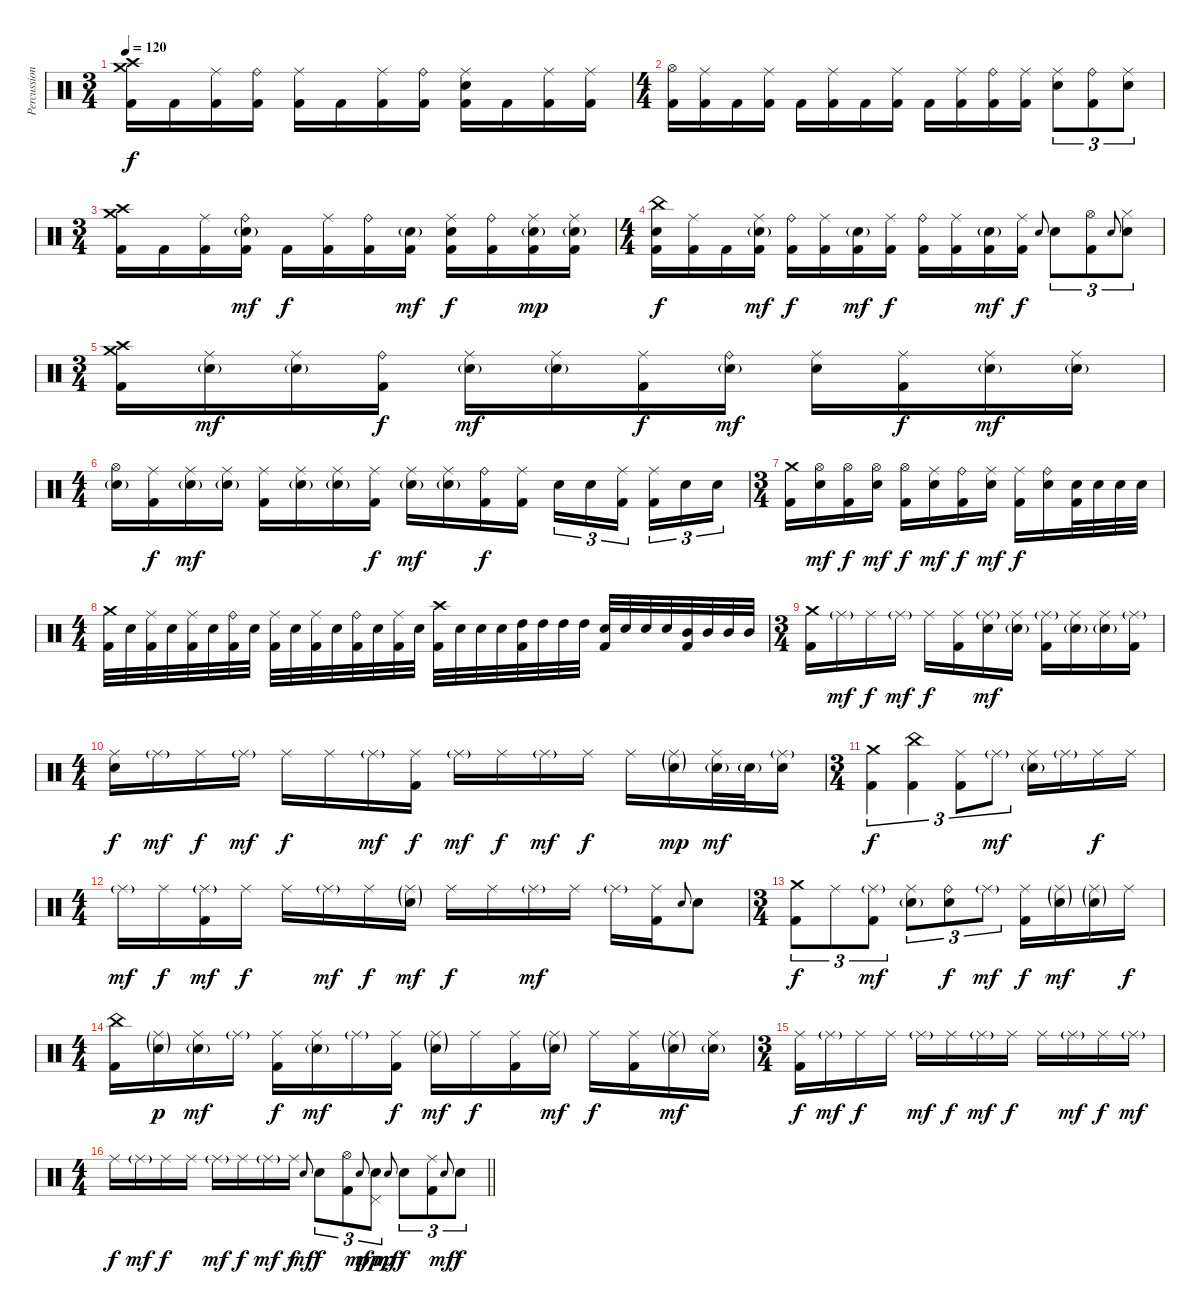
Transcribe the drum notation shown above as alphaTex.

\track ("Percussion" "Percussion") {instrument percussion}
\staff {score}
\articulation defaults
\ts (3 4)
\tempo 120
\clef neutral
\ks c
("Crash medium (hit)" "Crash high (hit)" "Kick (hit) 2").16{dy f} "Kick (hit) 2".16 ("Ride (middle)" "Kick (hit) 2").16 ("Ride (bell)" "Kick (hit) 2").16 ("Ride (middle)" "Kick (hit) 2").16 "Kick (hit) 2".16 ("Ride (middle)" "Kick (hit) 2").16 ("Ride (bell)" "Kick (hit) 2").16 ("Ride (middle)" "Electric Snare (hit)" "Kick (hit) 2").16 "Kick (hit) 2".16 ("Ride (middle)" "Kick (hit) 2").16 ("Ride (middle)" "Kick (hit) 2").16 |
\ts (4 4)
("Hi-Hat (open)" "Kick (hit) 2").16 ("Ride (middle)" "Kick (hit) 2").16 "Kick (hit) 2".16 ("Ride (middle)" "Kick (hit) 2").16 "Kick (hit) 2".16 ("Ride (middle)" "Kick (hit) 2").16 "Kick (hit) 2".16 ("Ride (middle)" "Kick (hit) 2").16 "Kick (hit) 2".16 ("Ride (middle)" "Kick (hit) 2").16 ("Ride (bell)" "Kick (hit) 2").16 ("Ride (middle)" "Kick (hit) 2").16 ("Ride (middle)" "Electric Snare (hit)").8{tu (3 2)} ("Ride (bell)" "Kick (hit) 2").8{tu (3 2)} ("Ride (middle)" "Electric Snare (hit)").8{tu (3 2)} |
\ts (3 4)
("Crash medium (hit)" "Crash high (hit)" "Kick (hit) 2").16 "Kick (hit) 2".16 ("Ride (middle)" "Kick (hit) 2").16 ("Ride (bell)" "Electric Snare (hit)"{g} "Kick (hit) 2").16{dy mf} "Kick (hit) 2".16{dy f} ("Ride (middle)" "Kick (hit) 2").16 ("Ride (bell)" "Kick (hit) 2").16 ("Electric Snare (hit)"{g} "Kick (hit) 2").16{dy mf} ("Ride (middle)" "Electric Snare (hit)" "Kick (hit) 2").16{dy f} ("Ride (bell)" "Kick (hit) 2").16 ("Ride (middle)" "Electric Snare (hit)"{g} "Kick (hit) 2").16{dy mp} ("Ride (middle)" "Electric Snare (hit)"{g} "Kick (hit) 2").16 |
\ts (4 4)
("China (hit)" "Electric Snare (hit)" "Kick (hit) 2").16{dy f} ("Ride (middle)" "Kick (hit) 2").16 "Kick (hit) 2".16 ("Ride (middle)" "Electric Snare (hit)"{g} "Kick (hit) 2").16{dy mf} ("Ride (bell)" "Kick (hit) 2").16{dy f} ("Ride (middle)" "Kick (hit) 2").16 ("Electric Snare (hit)"{g} "Kick (hit) 2").16{dy mf} ("Ride (middle)" "Kick (hit) 2").16{dy f} ("Ride (bell)" "Kick (hit) 2").16 ("Ride (middle)" "Kick (hit) 2").16 ("Electric Snare (hit)"{g} "Kick (hit) 2").16{dy mf} ("Ride (middle)" "Kick (hit) 2").16{dy f} "Electric Snare (hit)".8{gr onbeat} "Electric Snare (hit)".8{tu (3 2)} ("Hi-Hat (open)" "Kick (hit) 2").8{tu (3 2)} "Electric Snare (hit)".8{gr onbeat} ("Hi-Hat (closed)" "Electric Snare (hit)").8{tu (3 2)} |
\ts (3 4)
("Crash medium (hit)" "Crash high (hit)" "Kick (hit) 2").16 ("Ride (middle)" "Electric Snare (hit)"{g}).16{dy mf} ("Ride (middle)" "Electric Snare (hit)"{g}).16 ("Ride (bell)" "Kick (hit) 2").16{dy f} ("Ride (middle)" "Electric Snare (hit)"{g}).16{dy mf} ("Ride (middle)" "Electric Snare (hit)"{g}).16 ("Ride (middle)" "Kick (hit) 2").16{dy f} ("Ride (bell)" "Electric Snare (hit)"{g}).16{dy mf} ("Ride (middle)" "Electric Snare (hit)").16 ("Ride (middle)" "Kick (hit) 2").16{dy f} ("Ride (middle)" "Electric Snare (hit)"{g}).16{dy mf} ("Ride (middle)" "Electric Snare (hit)"{g}).16 |
\ts (4 4)
("Hi-Hat (open)" "Electric Snare (hit)"{g}).16 ("Ride (middle)" "Kick (hit) 2").16{dy f} ("Ride (middle)" "Electric Snare (hit)"{g}).16{dy mf} ("Ride (middle)" "Electric Snare (hit)"{g}).16 ("Ride (middle)" "Kick (hit) 2").16 ("Ride (middle)" "Electric Snare (hit)"{g}).16 ("Ride (middle)" "Electric Snare (hit)"{g}).16 ("Ride (middle)" "Kick (hit) 2").16{dy f} ("Ride (middle)" "Electric Snare (hit)"{g}).16{dy mf} ("Ride (middle)" "Electric Snare (hit)"{g}).16 ("Ride (bell)" "Kick (hit) 2").16{dy f} ("Ride (middle)" "Kick (hit) 2").16 "Electric Snare (hit)".16{tu (3 2)} "Electric Snare (hit)".16{tu (3 2)} ("Ride (middle)" "Kick (hit) 2").16{tu (3 2) beam splitsecondary} ("Ride (middle)" "Kick (hit) 2").16{tu (3 2)} "Electric Snare (hit)".16{tu (3 2)} "Electric Snare (hit)".16{tu (3 2)} |
\ts (3 4)
("Crash medium (hit)" "Kick (hit) 2").16 ("Hi-Hat (open)" "Electric Snare (hit)").16{dy mf} ("Hi-Hat (open)" "Kick (hit) 2").16{dy f} ("Hi-Hat (open)" "Electric Snare (hit)").16{dy mf} ("Hi-Hat (open)" "Kick (hit) 2").16{dy f} ("Ride (middle)" "Electric Snare (hit)").16{dy mf} ("Ride (bell)" "Kick (hit) 2").16{dy f} ("Ride (middle)" "Electric Snare (hit)").16{dy mf} ("Ride (middle)" "Kick (hit) 2").16{dy f} ("Ride (bell)" "Electric Snare (hit)").16 ("Electric Snare (hit)" "Kick (hit) 2").32 "Electric Snare (hit)".32 "Electric Snare (hit)".32 "Electric Snare (hit)".32 |
\ts (4 4)
("Crash medium (hit)" "Kick (hit) 2").32 "Electric Snare (hit)".32 ("Ride (middle)" "Kick (hit) 2").32 "Electric Snare (hit)".32 ("Ride (middle)" "Kick (hit) 2").32 "Electric Snare (hit)".32 ("Ride (bell)" "Kick (hit) 2").32 "Electric Snare (hit)".32 ("Ride (middle)" "Kick (hit) 2").32 "Electric Snare (hit)".32 ("Ride (middle)" "Kick (hit) 2").32 "Electric Snare (hit)".32 ("Ride (bell)" "Kick (hit) 2").32 "Electric Snare (hit)".32 ("Ride (middle)" "Kick (hit) 2").32 "Electric Snare (hit)".32 ("Crash high (hit)" "Kick (hit) 2").32 "Electric Snare (hit)".32 "Electric Snare (hit)".32 "Electric Snare (hit)".32 ("High Tom (hit)" "Kick (hit) 2").32 "High Tom (hit)".32 "High Tom (hit)".32 "High Tom (hit)".32 ("Electric Snare (hit)" "Kick (hit) 2").32 "Electric Snare (hit)".32 "Electric Snare (hit)".32 "Electric Snare (hit)".32 ("Mid Tom (hit)" "Kick (hit) 2").32 "Mid Tom (hit)".32 "Mid Tom (hit)".32 "Mid Tom (hit)".32 |
\ts (3 4)
("Crash medium (hit)" "Kick (hit) 2").16 "Ride (middle)"{g}.16{dy mf} "Ride (middle)".16{dy f} "Ride (middle)"{g}.16{dy mf} "Ride (middle)".16{dy f} ("Ride (middle)" "Kick (hit) 2").16 ("Ride (middle)"{g} "Electric Snare (hit)").16{dy mf} ("Ride (middle)" "Electric Snare (hit)"{g}).16 ("Ride (middle)"{g} "Kick (hit) 2").16 ("Ride (middle)" "Electric Snare (hit)"{g}).16 ("Ride (middle)" "Electric Snare (hit)"{g}).16 ("Ride (middle)"{g} "Kick (hit) 2").16 |
\ts (4 4)
("Ride (middle)" "Electric Snare (hit)").16{dy f} "Ride (middle)"{g}.16{dy mf} "Ride (middle)".16{dy f} "Ride (middle)"{g}.16{dy mf} "Ride (middle)".16{dy f} "Ride (middle)".16 "Ride (middle)"{g}.16{dy mf} ("Ride (middle)" "Kick (hit) 2").16{dy f} "Ride (middle)"{g}.16{dy mf} "Ride (middle)".16{dy f} "Ride (middle)"{g}.16{dy mf} "Ride (middle)".16{dy f} "Ride (middle)".16 ("Ride (middle)"{g} "Electric Snare (hit)"{g}).16{dy mp} ("Ride (middle)" "Electric Snare (hit)"{g}).32{dy mf} "Electric Snare (hit)"{g}.32 ("Ride (middle)"{g} "Electric Snare (hit)").16 |
\ts (3 4)
("Crash medium (hit)" "Kick (hit) 2").4{tu (3 2) dy f} ("China (hit)" "Kick (hit) 2").4{tu (3 2)} ("Ride (middle)" "Kick (hit) 2").8{tu (3 2)} "Ride (middle)"{g}.8{tu (3 2) dy mf} ("Ride (middle)" "Electric Snare (hit)"{g}).16 "Ride (middle)"{g}.16 "Ride (middle)".16{dy f} "Ride (middle)".16 |
\ts (4 4)
"Ride (middle)"{g}.16{dy mf} "Ride (middle)".16{dy f} ("Ride (middle)"{g} "Kick (hit) 2").16{dy mf} "Ride (middle)".16{dy f} "Ride (middle)".16 "Ride (middle)"{g}.16{dy mf} "Ride (middle)".16{dy f} ("Ride (middle)"{g} "Electric Snare (hit)"{g}).16{dy mf} "Ride (middle)".16{dy f} "Ride (middle)".16 "Ride (middle)"{g}.16{dy mf} "Ride (middle)".16 "Ride (middle)"{g}.16 ("Ride (middle)" "Kick (hit) 2").16 "Electric Snare (hit)".8{gr onbeat} "Electric Snare (hit)".8 |
\ts (3 4)
("Crash medium (hit)" "Kick (hit) 2").8{tu (3 2) dy f} "Ride (middle)".8{tu (3 2)} ("Ride (middle)"{g} "Kick (hit) 2").8{tu (3 2) dy mf} ("Ride (middle)" "Electric Snare (hit)"{g}).8{tu (3 2)} ("Ride (bell)" "Electric Snare (hit)").8{tu (3 2) dy f} "Ride (middle)"{g}.8{tu (3 2) dy mf} ("Ride (middle)" "Kick (hit) 2").16{dy f} ("Ride (middle)"{g} "Electric Snare (hit)"{g}).16{dy mf} ("Ride (middle)"{g} "Electric Snare (hit)"{g}).16 "Ride (middle)".16{dy f} |
\ts (4 4)
("China (hit)" "Kick (hit) 2").16 ("Ride (middle)"{g} "Electric Snare (hit)"{g}).16{dy p} ("Ride (middle)" "Electric Snare (hit)"{g}).16{dy mf} "Ride (middle)"{g}.16 ("Ride (middle)" "Kick (hit) 2").16{dy f} ("Ride (middle)" "Electric Snare (hit)"{g}).16{dy mf} "Ride (middle)"{g}.16 ("Ride (middle)" "Kick (hit) 2").16{dy f} ("Ride (middle)"{g} "Electric Snare (hit)"{g}).16{dy mf} "Ride (middle)".16{dy f} ("Ride (middle)" "Kick (hit) 2").16 ("Ride (middle)"{g} "Electric Snare (hit)"{g}).16{dy mf} "Ride (middle)".16{dy f} ("Ride (middle)" "Kick (hit) 2").16 ("Ride (middle)"{g} "Electric Snare (hit)"{g}).16{dy mf} ("Ride (middle)" "Electric Snare (hit)"{g}).16 |
\ts (3 4)
("Ride (middle)" "Kick (hit) 2").16{dy f} "Ride (middle)"{g}.16{dy mf} "Ride (middle)".16{dy f} "Ride (middle)".16 "Ride (middle)"{g}.16{dy mf} "Ride (middle)".16{dy f} "Ride (middle)"{g}.16{dy mf} "Ride (middle)".16{dy f} "Ride (middle)".16 "Ride (middle)"{g}.16{dy mf} "Ride (middle)".16{dy f} "Ride (middle)"{g}.16{dy mf} |
\ts (4 4)
\barLineRight lightlight "Ride (middle)".16{dy f} "Ride (middle)"{g}.16{dy mf} "Ride (middle)".16{dy f} "Ride (middle)".16 "Ride (middle)"{g}.16{dy mf} "Ride (middle)".16{dy f} "Ride (middle)"{g}.16{dy mf} "Ride (middle)".16{dy f} "Electric Snare (hit)".8{gr onbeat dy mf} "Electric Snare (hit)".8{tu (3 2) dy f}
("Hi-Hat (open)" "Kick (hit) 2").8{tu (3 2)} "Electric Snare (hit)".8{gr onbeat dy mf} ("Pedal Hi-Hat (hit)" "Electric Snare (hit)").8{tu (3 2) dy ppp} "Electric Snare (hit)".8{gr onbeat dy mf} "Electric Snare (hit)".8{tu (3 2) dy f} ("Ride (middle)" "Kick (hit) 2").8{tu (3 2)} "Electric Snare (hit)".8{gr onbeat dy mf} "Electric Snare (hit)".8{tu (3 2) dy f}
